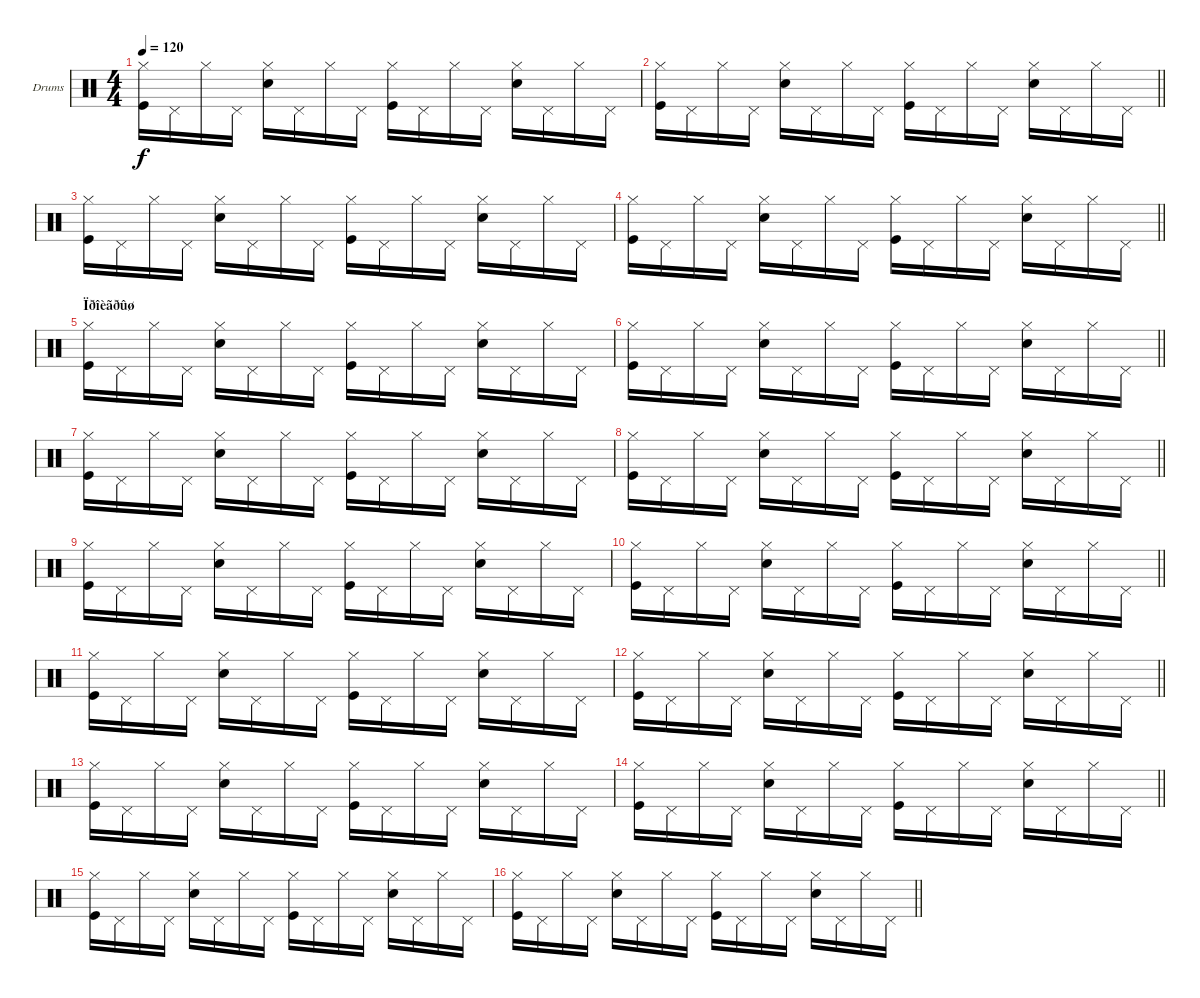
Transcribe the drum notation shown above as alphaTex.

\bracketExtendMode groupsimilarinstruments
\firstSystemTrackNameOrientation horizontal
\otherSystemsTrackNameOrientation horizontal
\track ("Drumkit" "Drums") {instrument percussion}
\staff {score}
\articulation defaults
\ts (4 4)
\tempo 120
\clef neutral
\ks c
("Hi-Hat (closed)" "Kick (hit)").16{dy f} "Pedal Hi-Hat (hit)".16 "Hi-Hat (closed)".16 "Pedal Hi-Hat (hit)".16 ("Hi-Hat (closed)" "Snare (hit) 2").16 "Pedal Hi-Hat (hit)".16 "Hi-Hat (closed)".16 "Pedal Hi-Hat (hit)".16 ("Hi-Hat (closed)" "Kick (hit)").16 "Pedal Hi-Hat (hit)".16 "Hi-Hat (closed)".16 "Pedal Hi-Hat (hit)".16 ("Hi-Hat (closed)" "Snare (hit) 2").16 "Pedal Hi-Hat (hit)".16 "Hi-Hat (closed)".16 "Pedal Hi-Hat (hit)".16 |
\barLineRight lightlight
("Hi-Hat (closed)" "Kick (hit)").16 "Pedal Hi-Hat (hit)".16 "Hi-Hat (closed)".16 "Pedal Hi-Hat (hit)".16 ("Hi-Hat (closed)" "Snare (hit) 2").16 "Pedal Hi-Hat (hit)".16 "Hi-Hat (closed)".16 "Pedal Hi-Hat (hit)".16 ("Hi-Hat (closed)" "Kick (hit)").16 "Pedal Hi-Hat (hit)".16 "Hi-Hat (closed)".16 "Pedal Hi-Hat (hit)".16 ("Hi-Hat (closed)" "Snare (hit) 2").16 "Pedal Hi-Hat (hit)".16 "Hi-Hat (closed)".16 "Pedal Hi-Hat (hit)".16 |
("Hi-Hat (closed)" "Kick (hit)").16 "Pedal Hi-Hat (hit)".16 "Hi-Hat (closed)".16 "Pedal Hi-Hat (hit)".16 ("Hi-Hat (closed)" "Snare (hit) 2").16 "Pedal Hi-Hat (hit)".16 "Hi-Hat (closed)".16 "Pedal Hi-Hat (hit)".16 ("Hi-Hat (closed)" "Kick (hit)").16 "Pedal Hi-Hat (hit)".16 "Hi-Hat (closed)".16 "Pedal Hi-Hat (hit)".16 ("Hi-Hat (closed)" "Snare (hit) 2").16 "Pedal Hi-Hat (hit)".16 "Hi-Hat (closed)".16 "Pedal Hi-Hat (hit)".16 |
\barLineRight lightlight
("Hi-Hat (closed)" "Kick (hit)").16 "Pedal Hi-Hat (hit)".16 "Hi-Hat (closed)".16 "Pedal Hi-Hat (hit)".16 ("Hi-Hat (closed)" "Snare (hit) 2").16 "Pedal Hi-Hat (hit)".16 "Hi-Hat (closed)".16 "Pedal Hi-Hat (hit)".16 ("Hi-Hat (closed)" "Kick (hit)").16 "Pedal Hi-Hat (hit)".16 "Hi-Hat (closed)".16 "Pedal Hi-Hat (hit)".16 ("Hi-Hat (closed)" "Snare (hit) 2").16 "Pedal Hi-Hat (hit)".16 "Hi-Hat (closed)".16 "Pedal Hi-Hat (hit)".16 |
\section ("" "Ïðîèãðûø")
("Hi-Hat (closed)" "Kick (hit)").16 "Pedal Hi-Hat (hit)".16 "Hi-Hat (closed)".16 "Pedal Hi-Hat (hit)".16 ("Hi-Hat (closed)" "Snare (hit) 2").16 "Pedal Hi-Hat (hit)".16 "Hi-Hat (closed)".16 "Pedal Hi-Hat (hit)".16 ("Hi-Hat (closed)" "Kick (hit)").16 "Pedal Hi-Hat (hit)".16 "Hi-Hat (closed)".16 "Pedal Hi-Hat (hit)".16 ("Hi-Hat (closed)" "Snare (hit) 2").16 "Pedal Hi-Hat (hit)".16 "Hi-Hat (closed)".16 "Pedal Hi-Hat (hit)".16 |
\barLineRight lightlight
("Hi-Hat (closed)" "Kick (hit)").16 "Pedal Hi-Hat (hit)".16 "Hi-Hat (closed)".16 "Pedal Hi-Hat (hit)".16 ("Hi-Hat (closed)" "Snare (hit) 2").16 "Pedal Hi-Hat (hit)".16 "Hi-Hat (closed)".16 "Pedal Hi-Hat (hit)".16 ("Hi-Hat (closed)" "Kick (hit)").16 "Pedal Hi-Hat (hit)".16 "Hi-Hat (closed)".16 "Pedal Hi-Hat (hit)".16 ("Hi-Hat (closed)" "Snare (hit) 2").16 "Pedal Hi-Hat (hit)".16 "Hi-Hat (closed)".16 "Pedal Hi-Hat (hit)".16 |
("Hi-Hat (closed)" "Kick (hit)").16 "Pedal Hi-Hat (hit)".16 "Hi-Hat (closed)".16 "Pedal Hi-Hat (hit)".16 ("Hi-Hat (closed)" "Snare (hit) 2").16 "Pedal Hi-Hat (hit)".16 "Hi-Hat (closed)".16 "Pedal Hi-Hat (hit)".16 ("Hi-Hat (closed)" "Kick (hit)").16 "Pedal Hi-Hat (hit)".16 "Hi-Hat (closed)".16 "Pedal Hi-Hat (hit)".16 ("Hi-Hat (closed)" "Snare (hit) 2").16 "Pedal Hi-Hat (hit)".16 "Hi-Hat (closed)".16 "Pedal Hi-Hat (hit)".16 |
\barLineRight lightlight
("Hi-Hat (closed)" "Kick (hit)").16 "Pedal Hi-Hat (hit)".16 "Hi-Hat (closed)".16 "Pedal Hi-Hat (hit)".16 ("Hi-Hat (closed)" "Snare (hit) 2").16 "Pedal Hi-Hat (hit)".16 "Hi-Hat (closed)".16 "Pedal Hi-Hat (hit)".16 ("Hi-Hat (closed)" "Kick (hit)").16 "Pedal Hi-Hat (hit)".16 "Hi-Hat (closed)".16 "Pedal Hi-Hat (hit)".16 ("Hi-Hat (closed)" "Snare (hit) 2").16 "Pedal Hi-Hat (hit)".16 "Hi-Hat (closed)".16 "Pedal Hi-Hat (hit)".16 |
("Hi-Hat (closed)" "Kick (hit)").16 "Pedal Hi-Hat (hit)".16 "Hi-Hat (closed)".16 "Pedal Hi-Hat (hit)".16 ("Hi-Hat (closed)" "Snare (hit) 2").16 "Pedal Hi-Hat (hit)".16 "Hi-Hat (closed)".16 "Pedal Hi-Hat (hit)".16 ("Hi-Hat (closed)" "Kick (hit)").16 "Pedal Hi-Hat (hit)".16 "Hi-Hat (closed)".16 "Pedal Hi-Hat (hit)".16 ("Hi-Hat (closed)" "Snare (hit) 2").16 "Pedal Hi-Hat (hit)".16 "Hi-Hat (closed)".16 "Pedal Hi-Hat (hit)".16 |
\barLineRight lightlight
("Hi-Hat (closed)" "Kick (hit)").16 "Pedal Hi-Hat (hit)".16 "Hi-Hat (closed)".16 "Pedal Hi-Hat (hit)".16 ("Hi-Hat (closed)" "Snare (hit) 2").16 "Pedal Hi-Hat (hit)".16 "Hi-Hat (closed)".16 "Pedal Hi-Hat (hit)".16 ("Hi-Hat (closed)" "Kick (hit)").16 "Pedal Hi-Hat (hit)".16 "Hi-Hat (closed)".16 "Pedal Hi-Hat (hit)".16 ("Hi-Hat (closed)" "Snare (hit) 2").16 "Pedal Hi-Hat (hit)".16 "Hi-Hat (closed)".16 "Pedal Hi-Hat (hit)".16 |
("Hi-Hat (closed)" "Kick (hit)").16 "Pedal Hi-Hat (hit)".16 "Hi-Hat (closed)".16 "Pedal Hi-Hat (hit)".16 ("Hi-Hat (closed)" "Snare (hit) 2").16 "Pedal Hi-Hat (hit)".16 "Hi-Hat (closed)".16 "Pedal Hi-Hat (hit)".16 ("Hi-Hat (closed)" "Kick (hit)").16 "Pedal Hi-Hat (hit)".16 "Hi-Hat (closed)".16 "Pedal Hi-Hat (hit)".16 ("Hi-Hat (closed)" "Snare (hit) 2").16 "Pedal Hi-Hat (hit)".16 "Hi-Hat (closed)".16 "Pedal Hi-Hat (hit)".16 |
\barLineRight lightlight
("Hi-Hat (closed)" "Kick (hit)").16 "Pedal Hi-Hat (hit)".16 "Hi-Hat (closed)".16 "Pedal Hi-Hat (hit)".16 ("Hi-Hat (closed)" "Snare (hit) 2").16 "Pedal Hi-Hat (hit)".16 "Hi-Hat (closed)".16 "Pedal Hi-Hat (hit)".16 ("Hi-Hat (closed)" "Kick (hit)").16 "Pedal Hi-Hat (hit)".16 "Hi-Hat (closed)".16 "Pedal Hi-Hat (hit)".16 ("Hi-Hat (closed)" "Snare (hit) 2").16 "Pedal Hi-Hat (hit)".16 "Hi-Hat (closed)".16 "Pedal Hi-Hat (hit)".16 |
("Hi-Hat (closed)" "Kick (hit)").16 "Pedal Hi-Hat (hit)".16 "Hi-Hat (closed)".16 "Pedal Hi-Hat (hit)".16 ("Hi-Hat (closed)" "Snare (hit) 2").16 "Pedal Hi-Hat (hit)".16 "Hi-Hat (closed)".16 "Pedal Hi-Hat (hit)".16 ("Hi-Hat (closed)" "Kick (hit)").16 "Pedal Hi-Hat (hit)".16 "Hi-Hat (closed)".16 "Pedal Hi-Hat (hit)".16 ("Hi-Hat (closed)" "Snare (hit) 2").16 "Pedal Hi-Hat (hit)".16 "Hi-Hat (closed)".16 "Pedal Hi-Hat (hit)".16 |
\barLineRight lightlight
("Hi-Hat (closed)" "Kick (hit)").16 "Pedal Hi-Hat (hit)".16 "Hi-Hat (closed)".16 "Pedal Hi-Hat (hit)".16 ("Hi-Hat (closed)" "Snare (hit) 2").16 "Pedal Hi-Hat (hit)".16 "Hi-Hat (closed)".16 "Pedal Hi-Hat (hit)".16 ("Hi-Hat (closed)" "Kick (hit)").16 "Pedal Hi-Hat (hit)".16 "Hi-Hat (closed)".16 "Pedal Hi-Hat (hit)".16 ("Hi-Hat (closed)" "Snare (hit) 2").16 "Pedal Hi-Hat (hit)".16 "Hi-Hat (closed)".16 "Pedal Hi-Hat (hit)".16 |
("Hi-Hat (closed)" "Kick (hit)").16 "Pedal Hi-Hat (hit)".16 "Hi-Hat (closed)".16 "Pedal Hi-Hat (hit)".16 ("Hi-Hat (closed)" "Snare (hit) 2").16 "Pedal Hi-Hat (hit)".16 "Hi-Hat (closed)".16 "Pedal Hi-Hat (hit)".16 ("Hi-Hat (closed)" "Kick (hit)").16 "Pedal Hi-Hat (hit)".16 "Hi-Hat (closed)".16 "Pedal Hi-Hat (hit)".16 ("Hi-Hat (closed)" "Snare (hit) 2").16 "Pedal Hi-Hat (hit)".16 "Hi-Hat (closed)".16 "Pedal Hi-Hat (hit)".16 |
\barLineRight lightlight
("Hi-Hat (closed)" "Kick (hit)").16 "Pedal Hi-Hat (hit)".16 "Hi-Hat (closed)".16 "Pedal Hi-Hat (hit)".16 ("Hi-Hat (closed)" "Snare (hit) 2").16 "Pedal Hi-Hat (hit)".16 "Hi-Hat (closed)".16 "Pedal Hi-Hat (hit)".16 ("Hi-Hat (closed)" "Kick (hit)").16 "Pedal Hi-Hat (hit)".16 "Hi-Hat (closed)".16 "Pedal Hi-Hat (hit)".16 ("Hi-Hat (closed)" "Snare (hit) 2").16 "Pedal Hi-Hat (hit)".16 "Hi-Hat (closed)".16 "Pedal Hi-Hat (hit)".16
